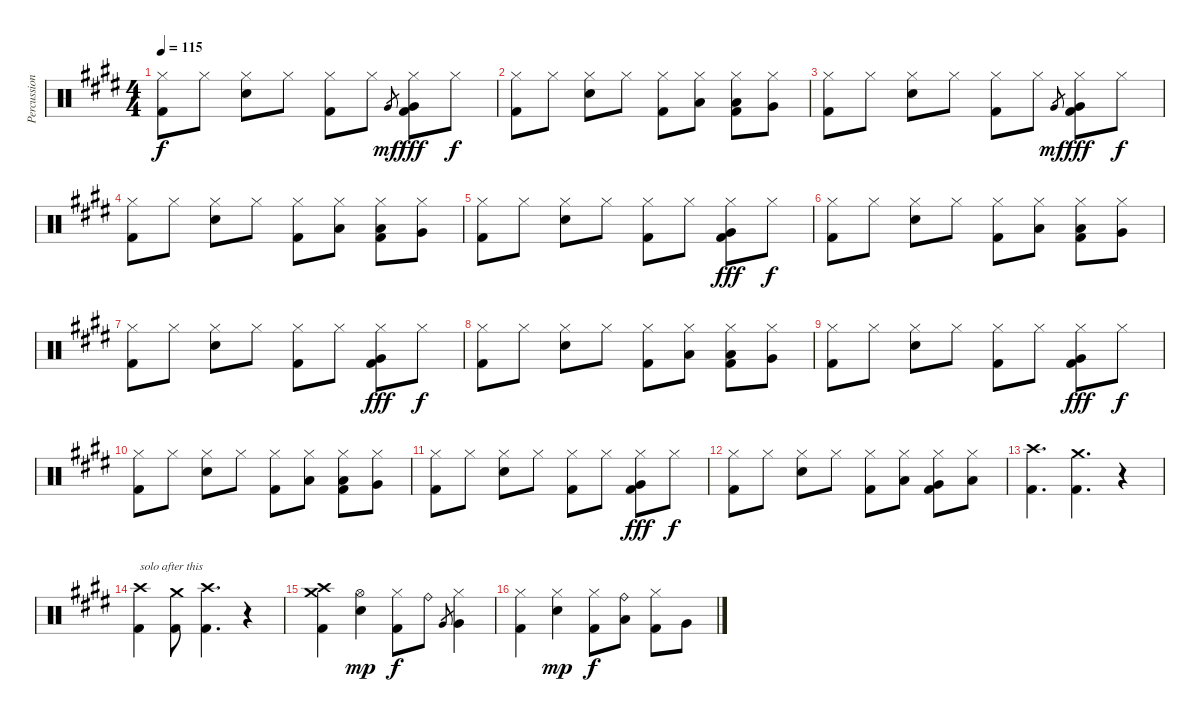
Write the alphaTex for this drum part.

\track ("Percussion" "Percussion") {instrument percussion}
\staff {score}
\articulation defaults
\ts (4 4)
\tempo 115
\clef neutral
\ks c#minor
("Hi-Hat (closed)" "Kick (hit) 2").8{dy f} "Hi-Hat (closed)".8 ("Hi-Hat (closed)" "Electric Snare (hit)").8 "Hi-Hat (closed)".8 ("Hi-Hat (closed)" "Kick (hit) 2").8 "Hi-Hat (closed)".8 "Very Low Tom (hit)".8{gr dy mf} ("Hi-Hat (closed)" "Very Low Tom (hit)" "Kick (hit) 2").8{dy fff} "Hi-Hat (closed)".8{dy f} |
("Hi-Hat (closed)" "Kick (hit) 2").8 "Hi-Hat (closed)".8 ("Hi-Hat (closed)" "Electric Snare (hit)").8 "Hi-Hat (closed)".8 ("Hi-Hat (closed)" "Kick (hit) 2").8 ("Hi-Hat (closed)" "Low Tom (hit)").8 ("Hi-Hat (closed)" "Low Floor Tom (hit)" "Kick (hit) 2").8 ("Hi-Hat (closed)" "Very Low Tom (hit)").8 |
("Hi-Hat (closed)" "Kick (hit) 2").8 "Hi-Hat (closed)".8 ("Hi-Hat (closed)" "Electric Snare (hit)").8 "Hi-Hat (closed)".8 ("Hi-Hat (closed)" "Kick (hit) 2").8 "Hi-Hat (closed)".8 "Very Low Tom (hit)".8{gr dy mf} ("Hi-Hat (closed)" "Very Low Tom (hit)" "Kick (hit) 2").8{dy fff} "Hi-Hat (closed)".8{dy f} |
("Hi-Hat (closed)" "Kick (hit) 2").8 "Hi-Hat (closed)".8 ("Hi-Hat (closed)" "Electric Snare (hit)").8 "Hi-Hat (closed)".8 ("Hi-Hat (closed)" "Kick (hit) 2").8 ("Hi-Hat (closed)" "Low Tom (hit)").8 ("Hi-Hat (closed)" "Low Floor Tom (hit)" "Kick (hit) 2").8 ("Hi-Hat (closed)" "Very Low Tom (hit)").8 |
("Hi-Hat (closed)" "Kick (hit) 2").8 "Hi-Hat (closed)".8 ("Hi-Hat (closed)" "Electric Snare (hit)").8 "Hi-Hat (closed)".8 ("Hi-Hat (closed)" "Kick (hit) 2").8 "Hi-Hat (closed)".8 ("Hi-Hat (closed)" "Very Low Tom (hit)" "Kick (hit) 2").8{dy fff} "Hi-Hat (closed)".8{dy f} |
("Hi-Hat (closed)" "Kick (hit) 2").8 "Hi-Hat (closed)".8 ("Hi-Hat (closed)" "Electric Snare (hit)").8 "Hi-Hat (closed)".8 ("Hi-Hat (closed)" "Kick (hit) 2").8 ("Hi-Hat (closed)" "Low Tom (hit)").8 ("Hi-Hat (closed)" "Low Floor Tom (hit)" "Kick (hit) 2").8 ("Hi-Hat (closed)" "Very Low Tom (hit)").8 |
("Hi-Hat (closed)" "Kick (hit) 2").8 "Hi-Hat (closed)".8 ("Hi-Hat (closed)" "Electric Snare (hit)").8 "Hi-Hat (closed)".8 ("Hi-Hat (closed)" "Kick (hit) 2").8 "Hi-Hat (closed)".8 ("Hi-Hat (closed)" "Very Low Tom (hit)" "Kick (hit) 2").8{dy fff} "Hi-Hat (closed)".8{dy f} |
("Hi-Hat (closed)" "Kick (hit) 2").8 "Hi-Hat (closed)".8 ("Hi-Hat (closed)" "Electric Snare (hit)").8 "Hi-Hat (closed)".8 ("Hi-Hat (closed)" "Kick (hit) 2").8 ("Hi-Hat (closed)" "Low Tom (hit)").8 ("Hi-Hat (closed)" "Low Floor Tom (hit)" "Kick (hit) 2").8 ("Hi-Hat (closed)" "Very Low Tom (hit)").8 |
("Hi-Hat (closed)" "Kick (hit) 2").8 "Hi-Hat (closed)".8 ("Hi-Hat (closed)" "Electric Snare (hit)").8 "Hi-Hat (closed)".8 ("Hi-Hat (closed)" "Kick (hit) 2").8 "Hi-Hat (closed)".8 ("Hi-Hat (closed)" "Very Low Tom (hit)" "Kick (hit) 2").8{dy fff} "Hi-Hat (closed)".8{dy f} |
("Hi-Hat (closed)" "Kick (hit) 2").8 "Hi-Hat (closed)".8 ("Hi-Hat (closed)" "Electric Snare (hit)").8 "Hi-Hat (closed)".8 ("Hi-Hat (closed)" "Kick (hit) 2").8 ("Hi-Hat (closed)" "Low Tom (hit)").8 ("Hi-Hat (closed)" "Low Floor Tom (hit)" "Kick (hit) 2").8 ("Hi-Hat (closed)" "Very Low Tom (hit)").8 |
("Hi-Hat (closed)" "Kick (hit) 2").8 "Hi-Hat (closed)".8 ("Hi-Hat (closed)" "Electric Snare (hit)").8 "Hi-Hat (closed)".8 ("Hi-Hat (closed)" "Kick (hit) 2").8 "Hi-Hat (closed)".8 ("Hi-Hat (closed)" "Very Low Tom (hit)" "Kick (hit) 2").8{dy fff} "Hi-Hat (closed)".8{dy f} |
("Hi-Hat (closed)" "Kick (hit) 2").8 "Hi-Hat (closed)".8 ("Hi-Hat (closed)" "Electric Snare (hit)").8 "Hi-Hat (closed)".8 ("Hi-Hat (closed)" "Kick (hit) 2").8 ("Hi-Hat (closed)" "Low Tom (hit)").8 ("Hi-Hat (closed)" "Very Low Tom (hit)" "Kick (hit) 2").8 ("Hi-Hat (closed)" "Low Floor Tom (hit)").8 |
("Crash high (hit)" "Kick (hit) 2").4{d} ("Crash medium (hit)" "Kick (hit) 2").4{d} r.4 |
("Crash high (hit)" "Kick (hit) 2").4{txt "solo after this"} ("Crash medium (hit)" "Kick (hit) 2").8 ("Crash high (hit)" "Kick (hit) 2").4{d} r.4 |
("Crash high (hit)" "Crash medium (hit)" "Kick (hit) 2").4 ("Hi-Hat (open)" "Electric Snare (hit)").4{dy mp} ("Hi-Hat (closed)" "Kick (hit) 2").8{dy f} "Ride (bell)".8 "Very Low Tom (hit)".8{gr} ("Hi-Hat (closed)" "Very Low Tom (hit)").4 |
("Hi-Hat (closed)" "Kick (hit) 2").4 ("Hi-Hat (closed)" "Electric Snare (hit)").4{dy mp} ("Hi-Hat (closed)" "Kick (hit) 2").8{dy f} ("Ride (bell)" "Low Tom (hit)").8 ("Hi-Hat (closed)" "Kick (hit) 2").8 "Very Low Tom (hit)".8
